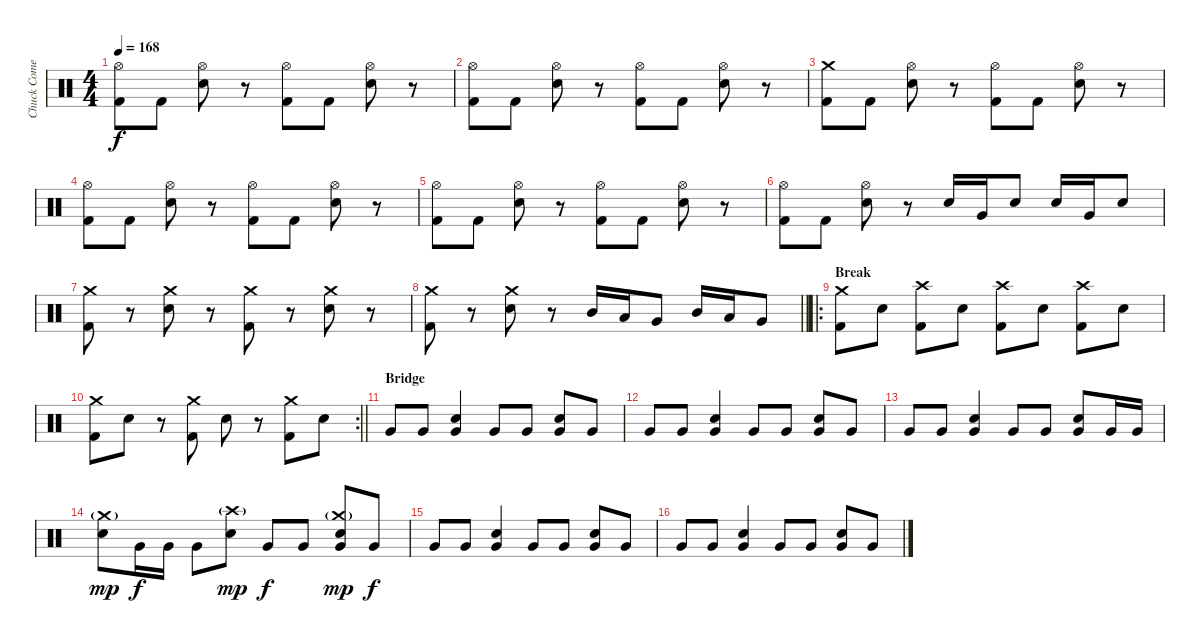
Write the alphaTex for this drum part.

\track ("Chuck Comeau" "Chuck Come") {instrument percussion}
\staff {score}
\articulation defaults
\ts (4 4)
\tempo 168
\clef neutral
\ks c
("Hi-Hat (open)" "Kick (hit) 2").8{dy f} "Kick (hit) 2".8 ("Hi-Hat (open)" "Snare (hit) 2").8 r.8 ("Hi-Hat (open)" "Kick (hit) 2").8 "Kick (hit) 2".8 ("Hi-Hat (open)" "Snare (hit) 2").8 r.8 |
("Hi-Hat (open)" "Kick (hit) 2").8 "Kick (hit) 2".8 ("Hi-Hat (open)" "Snare (hit) 2").8 r.8 ("Hi-Hat (open)" "Kick (hit) 2").8 "Kick (hit) 2".8 ("Hi-Hat (open)" "Snare (hit) 2").8 r.8 |
("Crash medium (hit)" "Kick (hit) 2").8 "Kick (hit) 2".8 ("Hi-Hat (open)" "Snare (hit) 2").8 r.8 ("Hi-Hat (open)" "Kick (hit) 2").8 "Kick (hit) 2".8 ("Hi-Hat (open)" "Snare (hit) 2").8 r.8 |
("Hi-Hat (open)" "Kick (hit) 2").8 "Kick (hit) 2".8 ("Hi-Hat (open)" "Snare (hit) 2").8 r.8 ("Hi-Hat (open)" "Kick (hit) 2").8 "Kick (hit) 2".8 ("Hi-Hat (open)" "Snare (hit) 2").8 r.8 |
("Hi-Hat (open)" "Kick (hit) 2").8 "Kick (hit) 2".8 ("Hi-Hat (open)" "Snare (hit) 2").8 r.8 ("Hi-Hat (open)" "Kick (hit) 2").8 "Kick (hit) 2".8 ("Hi-Hat (open)" "Snare (hit) 2").8 r.8 |
("Hi-Hat (open)" "Kick (hit) 2").8 "Kick (hit) 2".8 ("Hi-Hat (open)" "Snare (hit) 2").8 r.8 "Snare (hit) 2".16 "Very Low Tom (hit)".16 "Snare (hit) 2".8 "Snare (hit) 2".16 "Very Low Tom (hit)".16 "Snare (hit) 2".8 |
("Crash medium (hit)" "Kick (hit) 2").8 r.8 ("Crash medium (hit)" "Snare (hit) 2").8 r.8 ("Crash medium (hit)" "Kick (hit) 2").8 r.8 ("Crash medium (hit)" "Snare (hit) 2").8 r.8 |
\barLineRight lightlight
("Crash medium (hit)" "Kick (hit) 2").8 r.8 ("Crash medium (hit)" "Snare (hit) 2").8 r.8 "Mid Tom (hit)".16 "Low Tom (hit)".16 "Very Low Tom (hit)".8 "Mid Tom (hit)".16 "Low Tom (hit)".16 "Very Low Tom (hit)".8 |
\ro
\section ("" "Break")
("Crash medium (hit)" "Kick (hit) 2").8 "Snare (hit) 2".8 ("Crash high (hit)" "Kick (hit) 2").8 "Snare (hit) 2".8 ("Crash high (hit)" "Kick (hit) 2").8 "Snare (hit) 2".8 ("Crash high (hit)" "Kick (hit) 2").8 "Snare (hit) 2".8 |
\rc 2
\barLineRight lightlight
("Crash medium (hit)" "Kick (hit) 2").8 "Snare (hit) 2".8 r.8 ("Crash medium (hit)" "Kick (hit) 2").8 "Snare (hit) 2".8 r.8 ("Crash medium (hit)" "Kick (hit) 2").8 "Snare (hit) 2".8 |
\section ("" "Bridge")
"Very Low Tom (hit)".8 "Very Low Tom (hit)".8 ("Very Low Tom (hit)" "Snare (hit) 2").4 "Very Low Tom (hit)".8 "Very Low Tom (hit)".8 ("Very Low Tom (hit)" "Snare (hit) 2").8 "Very Low Tom (hit)".8 |
"Very Low Tom (hit)".8 "Very Low Tom (hit)".8 ("Very Low Tom (hit)" "Snare (hit) 2").4 "Very Low Tom (hit)".8 "Very Low Tom (hit)".8 ("Very Low Tom (hit)" "Snare (hit) 2").8 "Very Low Tom (hit)".8 |
"Very Low Tom (hit)".8 "Very Low Tom (hit)".8 ("Very Low Tom (hit)" "Snare (hit) 2").4 "Very Low Tom (hit)".8 "Very Low Tom (hit)".8 ("Very Low Tom (hit)" "Snare (hit) 2").8 "Very Low Tom (hit)".16 "Very Low Tom (hit)".16 |
("Crash medium (hit)"{g} "Snare (hit) 2").8{dy mp} "Very Low Tom (hit)".16{dy f} "Very Low Tom (hit)".16 "Very Low Tom (hit)".8 ("Crash high (hit)"{g} "Snare (hit) 2").8{dy mp} "Very Low Tom (hit)".8{dy f} "Very Low Tom (hit)".8 ("Crash medium (hit)"{g} "Very Low Tom (hit)" "Snare (hit) 2").8{dy mp} "Very Low Tom (hit)".8{dy f} |
"Very Low Tom (hit)".8 "Very Low Tom (hit)".8 ("Very Low Tom (hit)" "Snare (hit) 2").4 "Very Low Tom (hit)".8 "Very Low Tom (hit)".8 ("Very Low Tom (hit)" "Snare (hit) 2").8 "Very Low Tom (hit)".8 |
"Very Low Tom (hit)".8 "Very Low Tom (hit)".8 ("Very Low Tom (hit)" "Snare (hit) 2").4 "Very Low Tom (hit)".8 "Very Low Tom (hit)".8 ("Very Low Tom (hit)" "Snare (hit) 2").8 "Very Low Tom (hit)".8
